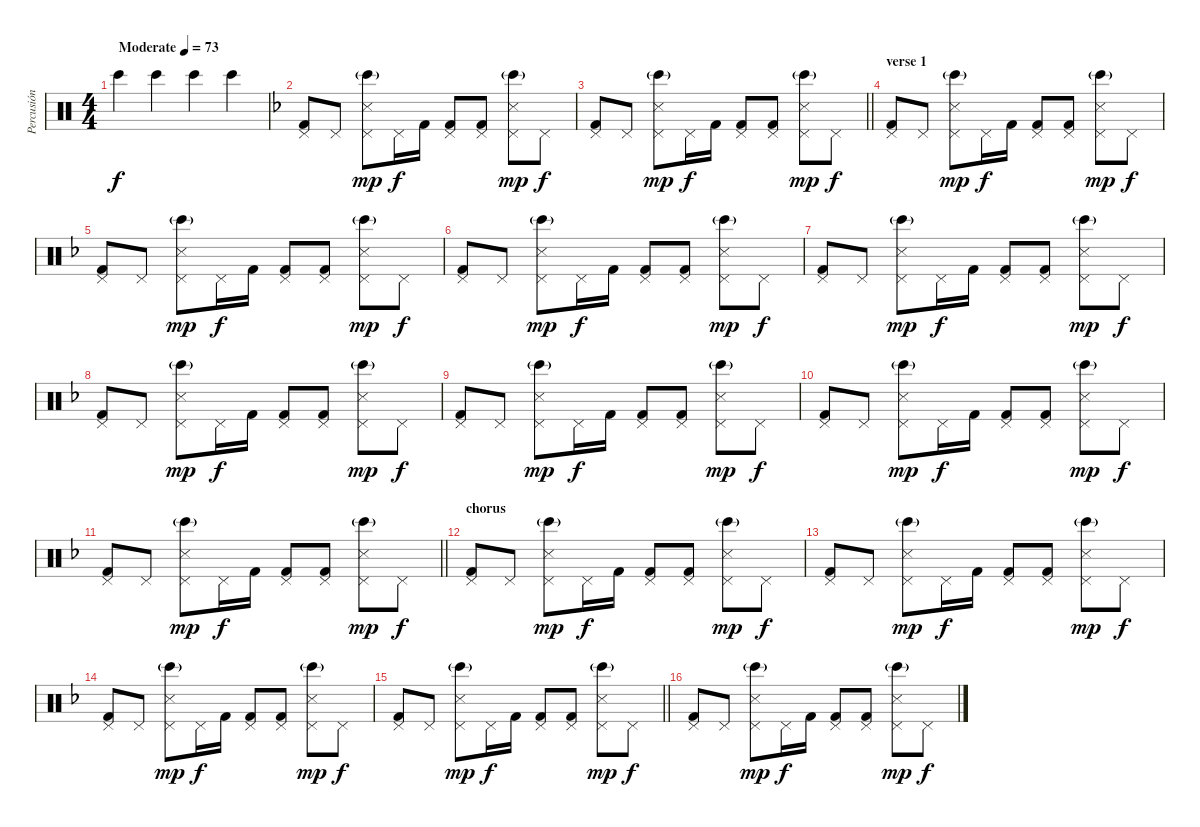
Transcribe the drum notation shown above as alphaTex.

\track ("Percusión" "Percusión") {instrument percussion}
\staff {score}
\articulation defaults
\ts (4 4)
\tempo (73 "Moderate")
\clef neutral
\ks c "Bongo High (hit)".4{dy f} "Bongo High (hit)".4 "Bongo High (hit)".4 "Bongo High (hit)".4
|
\ks f
("Pedal Hi-Hat (hit)" "Kick (hit) 2").8 "Pedal Hi-Hat (hit)".8 ("Pedal Hi-Hat (hit)" "Bongo High (hit)"{g} "Snare (side stick) 3").8{dy mp} "Pedal Hi-Hat (hit)".16{dy f} "Kick (hit) 2".16 ("Pedal Hi-Hat (hit)" "Kick (hit) 2").8 ("Pedal Hi-Hat (hit)" "Kick (hit) 2").8 ("Pedal Hi-Hat (hit)" "Bongo High (hit)"{g} "Snare (side stick) 3").8{dy mp} "Pedal Hi-Hat (hit)".8{dy f} |
\barLineRight lightlight
("Pedal Hi-Hat (hit)" "Kick (hit) 2").8 "Pedal Hi-Hat (hit)".8 ("Pedal Hi-Hat (hit)" "Bongo High (hit)"{g} "Snare (side stick) 3").8{dy mp} "Pedal Hi-Hat (hit)".16{dy f} "Kick (hit) 2".16 ("Pedal Hi-Hat (hit)" "Kick (hit) 2").8 ("Pedal Hi-Hat (hit)" "Kick (hit) 2").8 ("Pedal Hi-Hat (hit)" "Bongo High (hit)"{g} "Snare (side stick) 3").8{dy mp} "Pedal Hi-Hat (hit)".8{dy f} |
\section ("" "verse 1")
("Pedal Hi-Hat (hit)" "Kick (hit) 2").8 "Pedal Hi-Hat (hit)".8 ("Pedal Hi-Hat (hit)" "Bongo High (hit)"{g} "Snare (side stick) 3").8{dy mp} "Pedal Hi-Hat (hit)".16{dy f} "Kick (hit) 2".16 ("Pedal Hi-Hat (hit)" "Kick (hit) 2").8 ("Pedal Hi-Hat (hit)" "Kick (hit) 2").8 ("Pedal Hi-Hat (hit)" "Bongo High (hit)"{g} "Snare (side stick) 3").8{dy mp} "Pedal Hi-Hat (hit)".8{dy f} |
("Pedal Hi-Hat (hit)" "Kick (hit) 2").8 "Pedal Hi-Hat (hit)".8 ("Pedal Hi-Hat (hit)" "Bongo High (hit)"{g} "Snare (side stick) 3").8{dy mp} "Pedal Hi-Hat (hit)".16{dy f} "Kick (hit) 2".16 ("Pedal Hi-Hat (hit)" "Kick (hit) 2").8 ("Pedal Hi-Hat (hit)" "Kick (hit) 2").8 ("Pedal Hi-Hat (hit)" "Bongo High (hit)"{g} "Snare (side stick) 3").8{dy mp} "Pedal Hi-Hat (hit)".8{dy f} |
("Pedal Hi-Hat (hit)" "Kick (hit) 2").8 "Pedal Hi-Hat (hit)".8 ("Pedal Hi-Hat (hit)" "Bongo High (hit)"{g} "Snare (side stick) 3").8{dy mp} "Pedal Hi-Hat (hit)".16{dy f} "Kick (hit) 2".16 ("Pedal Hi-Hat (hit)" "Kick (hit) 2").8 ("Pedal Hi-Hat (hit)" "Kick (hit) 2").8 ("Pedal Hi-Hat (hit)" "Bongo High (hit)"{g} "Snare (side stick) 3").8{dy mp} "Pedal Hi-Hat (hit)".8{dy f} |
("Pedal Hi-Hat (hit)" "Kick (hit) 2").8 "Pedal Hi-Hat (hit)".8 ("Pedal Hi-Hat (hit)" "Bongo High (hit)"{g} "Snare (side stick) 3").8{dy mp} "Pedal Hi-Hat (hit)".16{dy f} "Kick (hit) 2".16 ("Pedal Hi-Hat (hit)" "Kick (hit) 2").8 ("Pedal Hi-Hat (hit)" "Kick (hit) 2").8 ("Pedal Hi-Hat (hit)" "Bongo High (hit)"{g} "Snare (side stick) 3").8{dy mp} "Pedal Hi-Hat (hit)".8{dy f} |
("Pedal Hi-Hat (hit)" "Kick (hit) 2").8 "Pedal Hi-Hat (hit)".8 ("Pedal Hi-Hat (hit)" "Bongo High (hit)"{g} "Snare (side stick) 3").8{dy mp} "Pedal Hi-Hat (hit)".16{dy f} "Kick (hit) 2".16 ("Pedal Hi-Hat (hit)" "Kick (hit) 2").8 ("Pedal Hi-Hat (hit)" "Kick (hit) 2").8 ("Pedal Hi-Hat (hit)" "Bongo High (hit)"{g} "Snare (side stick) 3").8{dy mp} "Pedal Hi-Hat (hit)".8{dy f} |
("Pedal Hi-Hat (hit)" "Kick (hit) 2").8 "Pedal Hi-Hat (hit)".8 ("Pedal Hi-Hat (hit)" "Bongo High (hit)"{g} "Snare (side stick) 3").8{dy mp} "Pedal Hi-Hat (hit)".16{dy f} "Kick (hit) 2".16 ("Pedal Hi-Hat (hit)" "Kick (hit) 2").8 ("Pedal Hi-Hat (hit)" "Kick (hit) 2").8 ("Pedal Hi-Hat (hit)" "Bongo High (hit)"{g} "Snare (side stick) 3").8{dy mp} "Pedal Hi-Hat (hit)".8{dy f} |
("Pedal Hi-Hat (hit)" "Kick (hit) 2").8 "Pedal Hi-Hat (hit)".8 ("Pedal Hi-Hat (hit)" "Bongo High (hit)"{g} "Snare (side stick) 3").8{dy mp} "Pedal Hi-Hat (hit)".16{dy f} "Kick (hit) 2".16 ("Pedal Hi-Hat (hit)" "Kick (hit) 2").8 ("Pedal Hi-Hat (hit)" "Kick (hit) 2").8 ("Pedal Hi-Hat (hit)" "Bongo High (hit)"{g} "Snare (side stick) 3").8{dy mp} "Pedal Hi-Hat (hit)".8{dy f} |
\barLineRight lightlight
("Pedal Hi-Hat (hit)" "Kick (hit) 2").8 "Pedal Hi-Hat (hit)".8 ("Pedal Hi-Hat (hit)" "Bongo High (hit)"{g} "Snare (side stick) 3").8{dy mp} "Pedal Hi-Hat (hit)".16{dy f} "Kick (hit) 2".16 ("Pedal Hi-Hat (hit)" "Kick (hit) 2").8 ("Pedal Hi-Hat (hit)" "Kick (hit) 2").8 ("Pedal Hi-Hat (hit)" "Bongo High (hit)"{g} "Snare (side stick) 3").8{dy mp} "Pedal Hi-Hat (hit)".8{dy f} |
\section ("" "chorus")
("Pedal Hi-Hat (hit)" "Kick (hit) 2").8 "Pedal Hi-Hat (hit)".8 ("Pedal Hi-Hat (hit)" "Bongo High (hit)"{g} "Snare (side stick) 3").8{dy mp} "Pedal Hi-Hat (hit)".16{dy f} "Kick (hit) 2".16 ("Pedal Hi-Hat (hit)" "Kick (hit) 2").8 ("Pedal Hi-Hat (hit)" "Kick (hit) 2").8 ("Pedal Hi-Hat (hit)" "Bongo High (hit)"{g} "Snare (side stick) 3").8{dy mp} "Pedal Hi-Hat (hit)".8{dy f} |
("Pedal Hi-Hat (hit)" "Kick (hit) 2").8 "Pedal Hi-Hat (hit)".8 ("Pedal Hi-Hat (hit)" "Bongo High (hit)"{g} "Snare (side stick) 3").8{dy mp} "Pedal Hi-Hat (hit)".16{dy f} "Kick (hit) 2".16 ("Pedal Hi-Hat (hit)" "Kick (hit) 2").8 ("Pedal Hi-Hat (hit)" "Kick (hit) 2").8 ("Pedal Hi-Hat (hit)" "Bongo High (hit)"{g} "Snare (side stick) 3").8{dy mp} "Pedal Hi-Hat (hit)".8{dy f} |
("Pedal Hi-Hat (hit)" "Kick (hit) 2").8 "Pedal Hi-Hat (hit)".8 ("Pedal Hi-Hat (hit)" "Bongo High (hit)"{g} "Snare (side stick) 3").8{dy mp} "Pedal Hi-Hat (hit)".16{dy f} "Kick (hit) 2".16 ("Pedal Hi-Hat (hit)" "Kick (hit) 2").8 ("Pedal Hi-Hat (hit)" "Kick (hit) 2").8 ("Pedal Hi-Hat (hit)" "Bongo High (hit)"{g} "Snare (side stick) 3").8{dy mp} "Pedal Hi-Hat (hit)".8{dy f} |
\barLineRight lightlight
("Pedal Hi-Hat (hit)" "Kick (hit) 2").8 "Pedal Hi-Hat (hit)".8 ("Pedal Hi-Hat (hit)" "Bongo High (hit)"{g} "Snare (side stick) 3").8{dy mp} "Pedal Hi-Hat (hit)".16{dy f} "Kick (hit) 2".16 ("Pedal Hi-Hat (hit)" "Kick (hit) 2").8 ("Pedal Hi-Hat (hit)" "Kick (hit) 2").8 ("Pedal Hi-Hat (hit)" "Bongo High (hit)"{g} "Snare (side stick) 3").8{dy mp} "Pedal Hi-Hat (hit)".8{dy f} |
("Pedal Hi-Hat (hit)" "Kick (hit) 2").8 "Pedal Hi-Hat (hit)".8 ("Pedal Hi-Hat (hit)" "Bongo High (hit)"{g} "Snare (side stick) 3").8{dy mp} "Pedal Hi-Hat (hit)".16{dy f} "Kick (hit) 2".16 ("Pedal Hi-Hat (hit)" "Kick (hit) 2").8 ("Pedal Hi-Hat (hit)" "Kick (hit) 2").8 ("Pedal Hi-Hat (hit)" "Bongo High (hit)"{g} "Snare (side stick) 3").8{dy mp} "Pedal Hi-Hat (hit)".8{dy f}
